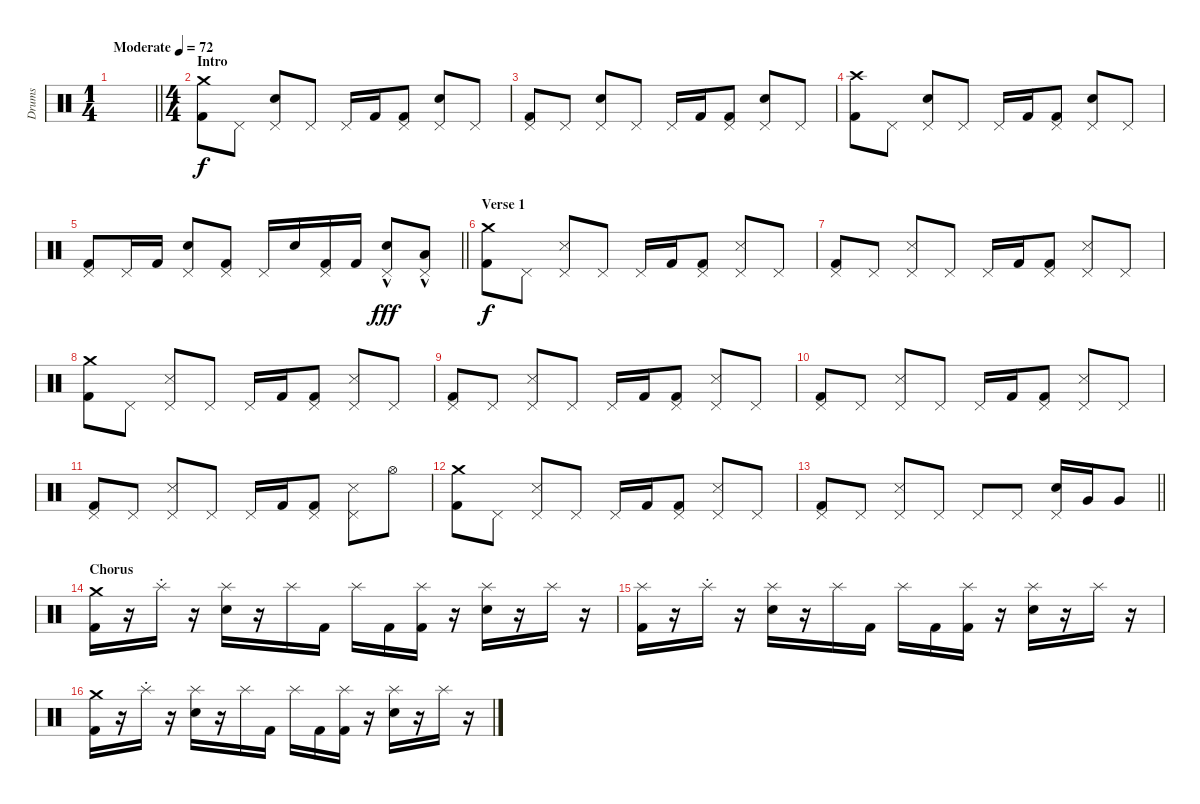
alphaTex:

\track ("Drums" "Drums") {instrument percussion}
\staff {score}
\articulation defaults
\ts (1 4)
\tempo (72 "Moderate")
\clef neutral
\barLineRight lightlight
\ks c
|
\ts (4 4)
\section ("" "Intro")
("Crash medium (hit)" "Kick (hit) 2").8 "Pedal Hi-Hat (hit)".8 ("Pedal Hi-Hat (hit)" "Electric Snare (hit)").8 "Pedal Hi-Hat (hit)".8 "Pedal Hi-Hat (hit)".16 "Kick (hit) 2".16 ("Pedal Hi-Hat (hit)" "Kick (hit) 2").8 ("Pedal Hi-Hat (hit)" "Electric Snare (hit)").8 "Pedal Hi-Hat (hit)".8 |
("Pedal Hi-Hat (hit)" "Kick (hit) 2").8 "Pedal Hi-Hat (hit)".8 ("Pedal Hi-Hat (hit)" "Electric Snare (hit)").8 "Pedal Hi-Hat (hit)".8 "Pedal Hi-Hat (hit)".16 "Kick (hit) 2".16 ("Pedal Hi-Hat (hit)" "Kick (hit) 2").8 ("Pedal Hi-Hat (hit)" "Electric Snare (hit)").8 "Pedal Hi-Hat (hit)".8 |
("Crash high (hit)" "Kick (hit) 2").8 "Pedal Hi-Hat (hit)".8 ("Pedal Hi-Hat (hit)" "Electric Snare (hit)").8 "Pedal Hi-Hat (hit)".8 "Pedal Hi-Hat (hit)".16 "Kick (hit) 2".16 ("Pedal Hi-Hat (hit)" "Kick (hit) 2").8 ("Pedal Hi-Hat (hit)" "Electric Snare (hit)").8 "Pedal Hi-Hat (hit)".8 |
\barLineRight lightlight
("Pedal Hi-Hat (hit)" "Kick (hit) 2").8 "Pedal Hi-Hat (hit)".16 "Kick (hit) 2".16 ("Pedal Hi-Hat (hit)" "Electric Snare (hit)").8 ("Pedal Hi-Hat (hit)" "Kick (hit) 2").8 "Pedal Hi-Hat (hit)".16 "Electric Snare (hit)".16 ("Pedal Hi-Hat (hit)" "Kick (hit) 2").16 "Kick (hit) 2".16 ("Pedal Hi-Hat (hit)" "Electric Snare (hit)"{hac}).8{dy fff} ("Pedal Hi-Hat (hit)" "Low Floor Tom (hit)"{hac}).8 |
\section ("" "Verse 1")
("Crash medium (hit)" "Kick (hit) 2").8{dy f} "Pedal Hi-Hat (hit)".8 ("Pedal Hi-Hat (hit)" "Snare (side stick) 3").8 "Pedal Hi-Hat (hit)".8 "Pedal Hi-Hat (hit)".16 "Kick (hit) 2".16 ("Pedal Hi-Hat (hit)" "Kick (hit) 2").8 ("Pedal Hi-Hat (hit)" "Snare (side stick) 3").8 "Pedal Hi-Hat (hit)".8 |
("Pedal Hi-Hat (hit)" "Kick (hit) 2").8 "Pedal Hi-Hat (hit)".8 ("Pedal Hi-Hat (hit)" "Snare (side stick) 3").8 "Pedal Hi-Hat (hit)".8 "Pedal Hi-Hat (hit)".16 "Kick (hit) 2".16 ("Pedal Hi-Hat (hit)" "Kick (hit) 2").8 ("Pedal Hi-Hat (hit)" "Snare (side stick) 3").8 "Pedal Hi-Hat (hit)".8 |
("Crash medium (hit)" "Kick (hit) 2").8 "Pedal Hi-Hat (hit)".8 ("Pedal Hi-Hat (hit)" "Snare (side stick) 3").8 "Pedal Hi-Hat (hit)".8 "Pedal Hi-Hat (hit)".16 "Kick (hit) 2".16 ("Pedal Hi-Hat (hit)" "Kick (hit) 2").8 ("Pedal Hi-Hat (hit)" "Snare (side stick) 3").8 "Pedal Hi-Hat (hit)".8 |
("Pedal Hi-Hat (hit)" "Kick (hit) 2").8 "Pedal Hi-Hat (hit)".8 ("Pedal Hi-Hat (hit)" "Snare (side stick) 3").8 "Pedal Hi-Hat (hit)".8 "Pedal Hi-Hat (hit)".16 "Kick (hit) 2".16 ("Pedal Hi-Hat (hit)" "Kick (hit) 2").8 ("Pedal Hi-Hat (hit)" "Snare (side stick) 3").8 "Pedal Hi-Hat (hit)".8 |
("Pedal Hi-Hat (hit)" "Kick (hit) 2").8 "Pedal Hi-Hat (hit)".8 ("Pedal Hi-Hat (hit)" "Snare (side stick) 3").8 "Pedal Hi-Hat (hit)".8 "Pedal Hi-Hat (hit)".16 "Kick (hit) 2".16 ("Pedal Hi-Hat (hit)" "Kick (hit) 2").8 ("Pedal Hi-Hat (hit)" "Snare (side stick) 3").8 "Pedal Hi-Hat (hit)".8 |
("Pedal Hi-Hat (hit)" "Kick (hit) 2").8 "Pedal Hi-Hat (hit)".8 ("Pedal Hi-Hat (hit)" "Snare (side stick) 3").8 "Pedal Hi-Hat (hit)".8 "Pedal Hi-Hat (hit)".16 "Kick (hit) 2".16 ("Pedal Hi-Hat (hit)" "Kick (hit) 2").8 ("Pedal Hi-Hat (hit)" "Snare (side stick) 3").8 "Hi-Hat (open)".8 |
("Crash medium (hit)" "Kick (hit) 2").8 "Pedal Hi-Hat (hit)".8 ("Pedal Hi-Hat (hit)" "Snare (side stick) 3").8 "Pedal Hi-Hat (hit)".8 "Pedal Hi-Hat (hit)".16 "Kick (hit) 2".16 ("Pedal Hi-Hat (hit)" "Kick (hit) 2").8 ("Pedal Hi-Hat (hit)" "Snare (side stick) 3").8 "Pedal Hi-Hat (hit)".8 |
\barLineRight lightlight
("Pedal Hi-Hat (hit)" "Kick (hit) 2").8 "Pedal Hi-Hat (hit)".8 ("Pedal Hi-Hat (hit)" "Snare (side stick) 3").8 "Pedal Hi-Hat (hit)".8 "Pedal Hi-Hat (hit)".8 "Pedal Hi-Hat (hit)".8 ("Pedal Hi-Hat (hit)" "Electric Snare (hit)").16 "Very Low Tom (hit)".16 "Very Low Tom (hit)".8 |
\section ("" "Chorus")
("Crash medium (hit)" "Kick (hit) 2").16 r.16 "Splash (hit)"{st}.16 r.16 ("Splash (hit)" "Electric Snare (hit)").16 r.16 "Splash (hit)".16 "Kick (hit) 2".16 "Splash (hit)".16 "Kick (hit) 2".16 ("Splash (hit)" "Kick (hit) 2").16 r.16 ("Splash (hit)" "Electric Snare (hit)").16 r.16 "Splash (hit)".16 r.16 |
("Splash (hit)" "Kick (hit) 2").16 r.16 "Splash (hit)"{st}.16 r.16 ("Splash (hit)" "Electric Snare (hit)").16 r.16 "Splash (hit)".16 "Kick (hit) 2".16 "Splash (hit)".16 "Kick (hit) 2".16 ("Splash (hit)" "Kick (hit) 2").16 r.16 ("Splash (hit)" "Electric Snare (hit)").16 r.16 "Splash (hit)".16 r.16 |
("Crash medium (hit)" "Kick (hit) 2").16 r.16 "Splash (hit)"{st}.16 r.16 ("Splash (hit)" "Electric Snare (hit)").16 r.16 "Splash (hit)".16 "Kick (hit) 2".16 "Splash (hit)".16 "Kick (hit) 2".16 ("Splash (hit)" "Kick (hit) 2").16 r.16 ("Splash (hit)" "Electric Snare (hit)").16 r.16 "Splash (hit)".16 r.16
